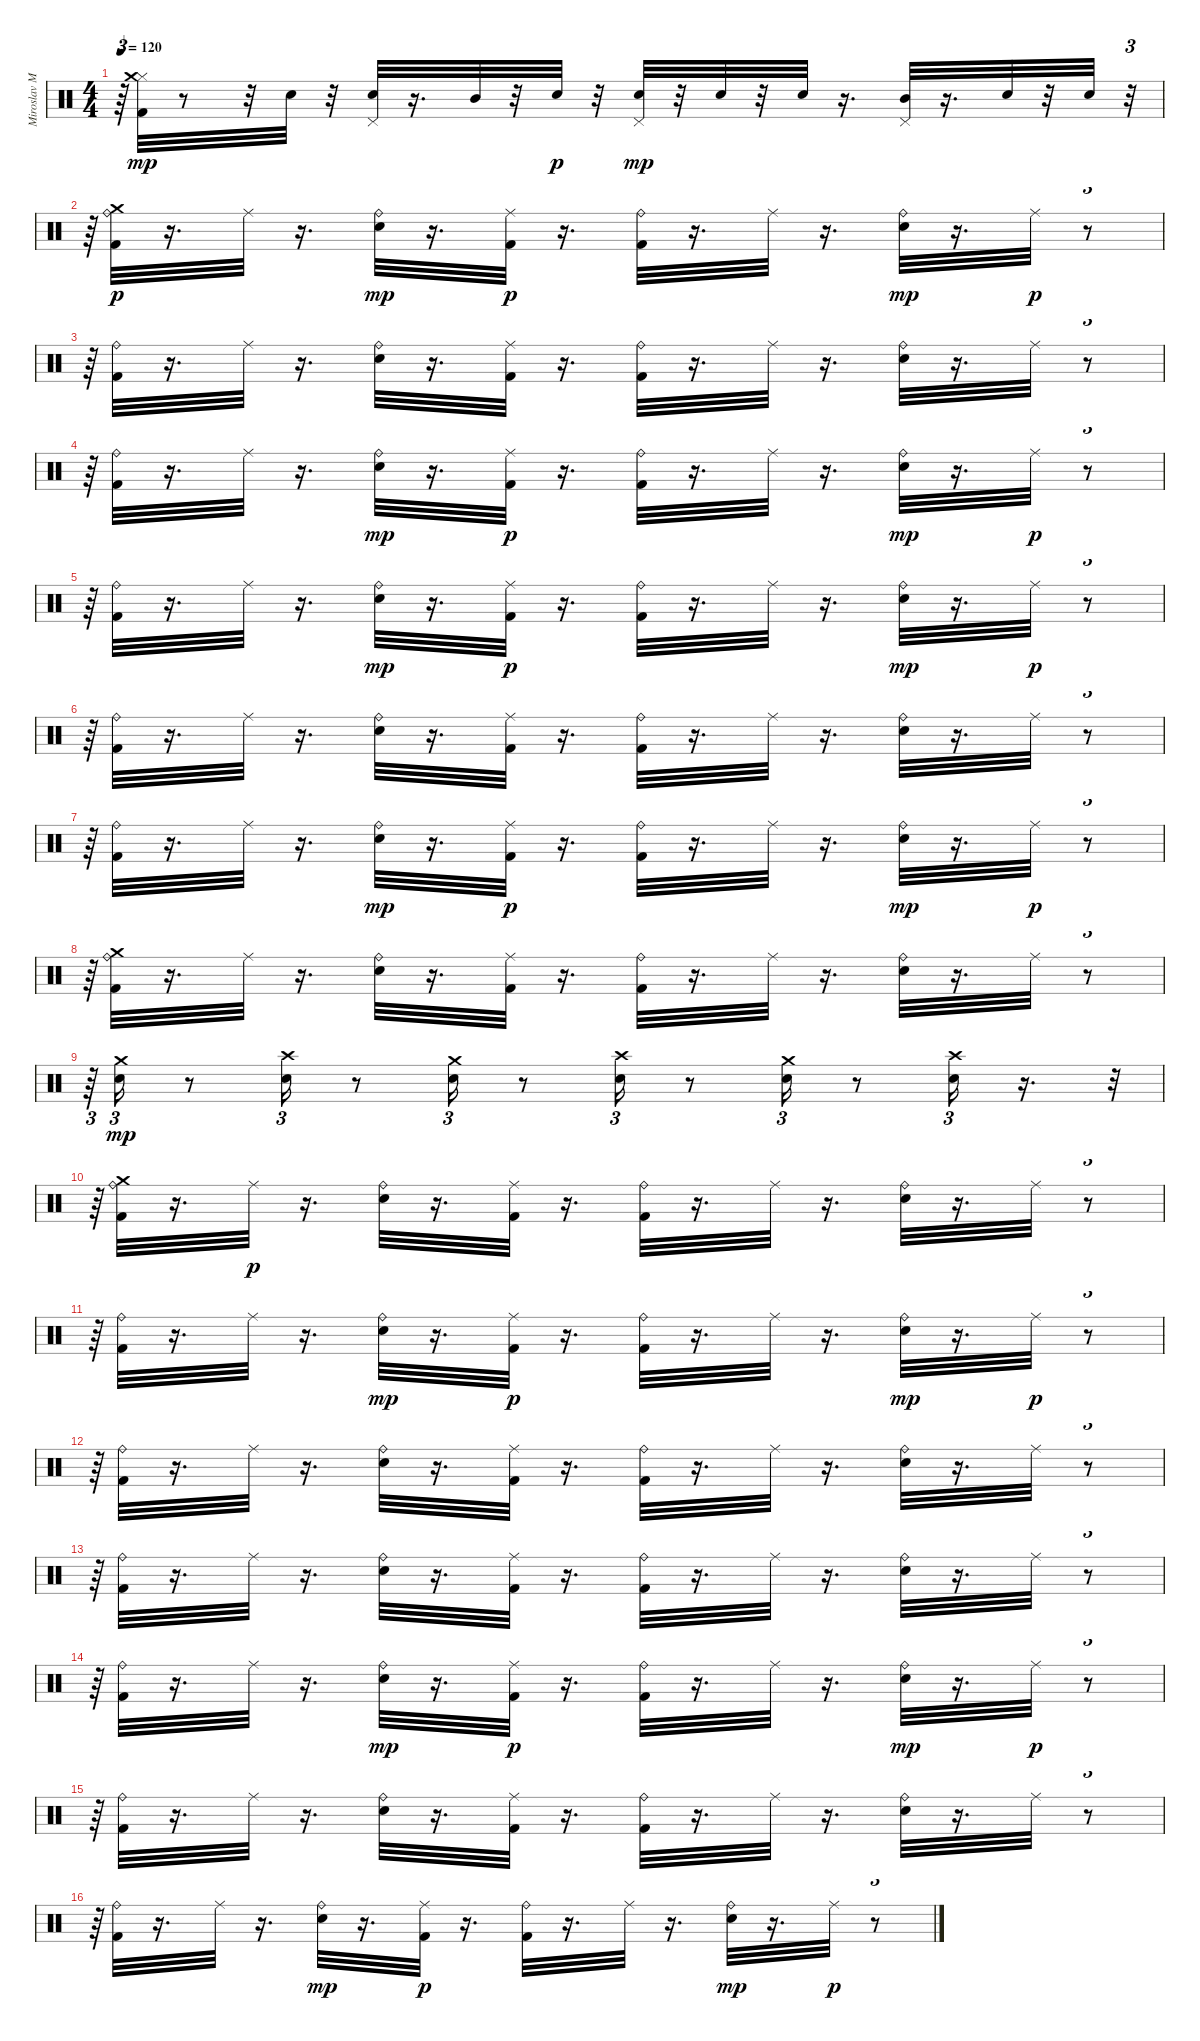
\track ("Miroslav Milatovic-Vicko-bubnjevi" "Miroslav M") {instrument percussion}
\staff {score}
\articulation defaults
\ts (4 4)
\tempo 120
\clef neutral
\ks c
r.64{tu (3 2) dy p} ("Kick (hit) 2" "Hi-Hat (closed)" "Crash medium (hit)").32{dy mp} r.8 r.32 "Electric Snare (hit)".32 r.32 ("Pedal Hi-Hat (hit)" "Electric Snare (hit)").32 r.16{d} "Mid Tom (hit)".32 r.32 "Electric Snare (hit)".32{dy p} r.32 ("Electric Snare (hit)" "Pedal Hi-Hat (hit)").32{dy mp} r.32 "Electric Snare (hit)".32 r.32 "Electric Snare (hit)".32 r.16{d} ("Mid Tom (hit)" "Pedal Hi-Hat (hit)").32 r.16{d} "Electric Snare (hit)".32 r.32 "Electric Snare (hit)".32 r.32{tu (3 2)} |
r.64{tu (3 2)} ("Crash medium (hit)" "Ride (bell)" "Kick (hit) 2").32{dy p} r.16{d} "Ride (middle)".32 r.16{d} ("Ride (bell)" "Electric Snare (hit)").32{dy mp} r.16{d} ("Ride (middle)" "Kick (hit) 2").32{dy p} r.16{d} ("Ride (bell)" "Kick (hit) 2").32 r.16{d} "Ride (middle)".32 r.16{d} ("Ride (bell)" "Electric Snare (hit)").32{dy mp} r.16{d} "Ride (middle)".32{dy p} r.8{tu (3 2)} |
r.64{tu (3 2)} ("Kick (hit) 2" "Ride (bell)").32 r.16{d} "Ride (middle)".32 r.16{d} ("Electric Snare (hit)" "Ride (bell)").32 r.16{d} ("Kick (hit) 2" "Ride (middle)").32 r.16{d} ("Kick (hit) 2" "Ride (bell)").32 r.16{d} "Ride (middle)".32 r.16{d} ("Electric Snare (hit)" "Ride (bell)").32 r.16{d} "Ride (middle)".32 r.8{tu (3 2)} |
r.64{tu (3 2)} ("Ride (bell)" "Kick (hit) 2").32 r.16{d} "Ride (middle)".32 r.16{d} ("Ride (bell)" "Electric Snare (hit)").32{dy mp} r.16{d} ("Ride (middle)" "Kick (hit) 2").32{dy p} r.16{d} ("Ride (bell)" "Kick (hit) 2").32 r.16{d} "Ride (middle)".32 r.16{d} ("Ride (bell)" "Electric Snare (hit)").32{dy mp} r.16{d} "Ride (middle)".32{dy p} r.8{tu (3 2)} |
r.64{tu (3 2)} ("Ride (bell)" "Kick (hit) 2").32 r.16{d} "Ride (middle)".32 r.16{d} ("Ride (bell)" "Electric Snare (hit)").32{dy mp} r.16{d} ("Ride (middle)" "Kick (hit) 2").32{dy p} r.16{d} ("Ride (bell)" "Kick (hit) 2").32 r.16{d} "Ride (middle)".32 r.16{d} ("Ride (bell)" "Electric Snare (hit)").32{dy mp} r.16{d} "Ride (middle)".32{dy p} r.8{tu (3 2)} |
r.64{tu (3 2)} ("Kick (hit) 2" "Ride (bell)").32 r.16{d} "Ride (middle)".32 r.16{d} ("Electric Snare (hit)" "Ride (bell)").32 r.16{d} ("Kick (hit) 2" "Ride (middle)").32 r.16{d} ("Kick (hit) 2" "Ride (bell)").32 r.16{d} "Ride (middle)".32 r.16{d} ("Electric Snare (hit)" "Ride (bell)").32 r.16{d} "Ride (middle)".32 r.8{tu (3 2)} |
r.64{tu (3 2)} ("Ride (bell)" "Kick (hit) 2").32 r.16{d} "Ride (middle)".32 r.16{d} ("Ride (bell)" "Electric Snare (hit)").32{dy mp} r.16{d} ("Ride (middle)" "Kick (hit) 2").32{dy p} r.16{d} ("Ride (bell)" "Kick (hit) 2").32 r.16{d} "Ride (middle)".32 r.16{d} ("Ride (bell)" "Electric Snare (hit)").32{dy mp} r.16{d} "Ride (middle)".32{dy p} r.8{tu (3 2)} |
r.64{tu (3 2)} ("Crash medium (hit)" "Kick (hit) 2" "Ride (bell)").32 r.16{d} "Ride (middle)".32 r.16{d} ("Electric Snare (hit)" "Ride (bell)").32 r.16{d} ("Kick (hit) 2" "Ride (middle)").32 r.16{d} ("Kick (hit) 2" "Ride (bell)").32 r.16{d} "Ride (middle)".32 r.16{d} ("Electric Snare (hit)" "Ride (bell)").32 r.16{d} "Ride (middle)".32 r.8{tu (3 2)} |
r.64{tu (3 2)} ("Crash medium (hit)" "Electric Snare (hit)").16{tu (3 2) dy mp} r.8 ("Crash high (hit)" "Electric Snare (hit)").16{tu (3 2)} r.8 ("Crash medium (hit)" "Electric Snare (hit)").16{tu (3 2)} r.8 ("Crash high (hit)" "Electric Snare (hit)").16{tu (3 2)} r.8 ("Crash medium (hit)" "Electric Snare (hit)").16{tu (3 2)} r.8 ("Crash high (hit)" "Electric Snare (hit)").16{tu (3 2)} r.16{d} r.32{tu (3 2)} |
r.64{tu (3 2)} ("Kick (hit) 2" "Ride (bell)" "Crash medium (hit)").32 r.16{d} "Ride (middle)".32{dy p} r.16{d} ("Electric Snare (hit)" "Ride (bell)").32 r.16{d} ("Kick (hit) 2" "Ride (middle)").32 r.16{d} ("Kick (hit) 2" "Ride (bell)").32 r.16{d} "Ride (middle)".32 r.16{d} ("Electric Snare (hit)" "Ride (bell)").32 r.16{d} "Ride (middle)".32 r.8{tu (3 2)} |
r.64{tu (3 2)} ("Ride (bell)" "Kick (hit) 2").32 r.16{d} "Ride (middle)".32 r.16{d} ("Ride (bell)" "Electric Snare (hit)").32{dy mp} r.16{d} ("Ride (middle)" "Kick (hit) 2").32{dy p} r.16{d} ("Ride (bell)" "Kick (hit) 2").32 r.16{d} "Ride (middle)".32 r.16{d} ("Ride (bell)" "Electric Snare (hit)").32{dy mp} r.16{d} "Ride (middle)".32{dy p} r.8{tu (3 2)} |
r.64{tu (3 2)} ("Kick (hit) 2" "Ride (bell)").32 r.16{d} "Ride (middle)".32 r.16{d} ("Electric Snare (hit)" "Ride (bell)").32 r.16{d} ("Kick (hit) 2" "Ride (middle)").32 r.16{d} ("Kick (hit) 2" "Ride (bell)").32 r.16{d} "Ride (middle)".32 r.16{d} ("Electric Snare (hit)" "Ride (bell)").32 r.16{d} "Ride (middle)".32 r.8{tu (3 2)} |
r.64{tu (3 2)} ("Kick (hit) 2" "Ride (bell)").32 r.16{d} "Ride (middle)".32 r.16{d} ("Electric Snare (hit)" "Ride (bell)").32 r.16{d} ("Kick (hit) 2" "Ride (middle)").32 r.16{d} ("Kick (hit) 2" "Ride (bell)").32 r.16{d} "Ride (middle)".32 r.16{d} ("Electric Snare (hit)" "Ride (bell)").32 r.16{d} "Ride (middle)".32 r.8{tu (3 2)} |
r.64{tu (3 2)} ("Ride (bell)" "Kick (hit) 2").32 r.16{d} "Ride (middle)".32 r.16{d} ("Ride (bell)" "Electric Snare (hit)").32{dy mp} r.16{d} ("Ride (middle)" "Kick (hit) 2").32{dy p} r.16{d} ("Ride (bell)" "Kick (hit) 2").32 r.16{d} "Ride (middle)".32 r.16{d} ("Ride (bell)" "Electric Snare (hit)").32{dy mp} r.16{d} "Ride (middle)".32{dy p} r.8{tu (3 2)} |
r.64{tu (3 2)} ("Kick (hit) 2" "Ride (bell)").32 r.16{d} "Ride (middle)".32 r.16{d} ("Electric Snare (hit)" "Ride (bell)").32 r.16{d} ("Kick (hit) 2" "Ride (middle)").32 r.16{d} ("Kick (hit) 2" "Ride (bell)").32 r.16{d} "Ride (middle)".32 r.16{d} ("Electric Snare (hit)" "Ride (bell)").32 r.16{d} "Ride (middle)".32 r.8{tu (3 2)} |
r.64{tu (3 2)} ("Ride (bell)" "Kick (hit) 2").32 r.16{d} "Ride (middle)".32 r.16{d} ("Ride (bell)" "Electric Snare (hit)").32{dy mp} r.16{d} ("Ride (middle)" "Kick (hit) 2").32{dy p} r.16{d} ("Ride (bell)" "Kick (hit) 2").32 r.16{d} "Ride (middle)".32 r.16{d} ("Ride (bell)" "Electric Snare (hit)").32{dy mp} r.16{d} "Ride (middle)".32{dy p} r.8{tu (3 2)}
